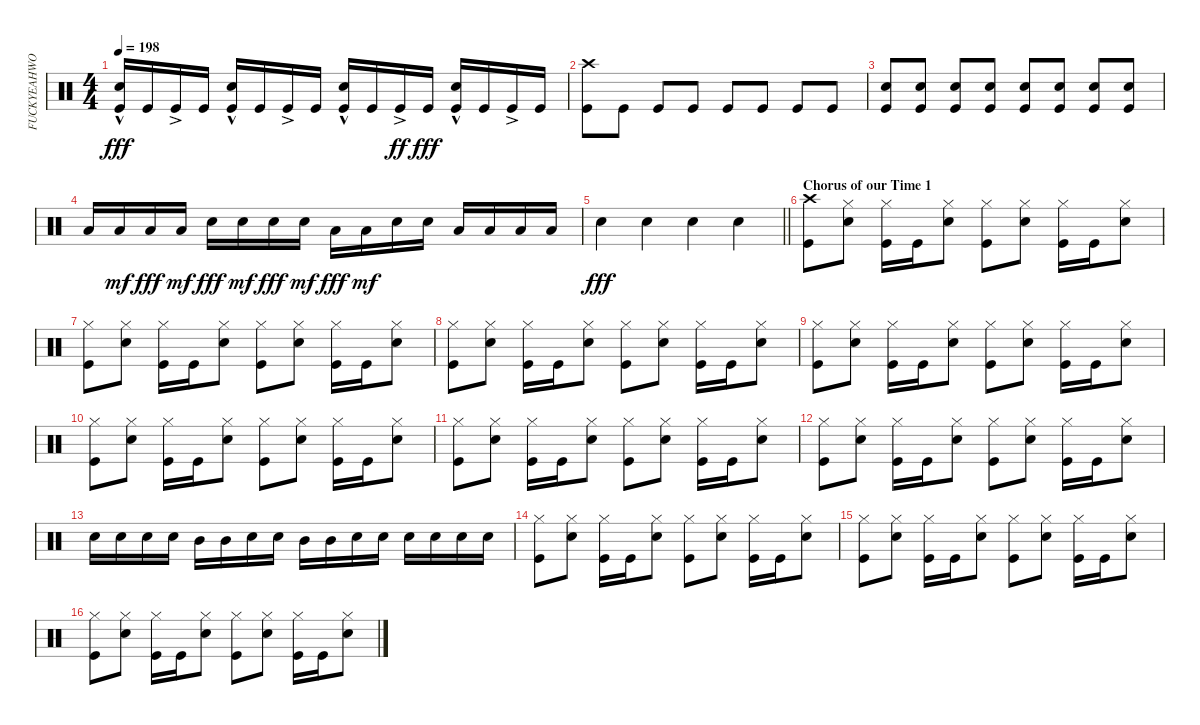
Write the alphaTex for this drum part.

\track ("FUCKYEAHWOOTDAVEMACKINTOSH!(Percussion)" "FUCKYEAHWO") {instrument percussion}
\staff {score}
\articulation defaults
\ts (4 4)
\tempo 198
\clef neutral
\ks c
("Snare (hit) 2" "Kick (hit)"{hac}).16{dy fff} "Kick (hit)".16 "Kick (hit)"{ac}.16 "Kick (hit)".16 ("Kick (hit)"{hac} "Snare (hit) 2").16 "Kick (hit)".16 "Kick (hit)"{ac}.16 "Kick (hit)".16 ("Snare (hit) 2" "Kick (hit)"{hac}).16 "Kick (hit)".16 "Kick (hit)"{ac}.16{dy ff} "Kick (hit)".16{dy fff} ("Snare (hit) 2" "Kick (hit)"{hac}).16 "Kick (hit)".16 "Kick (hit)"{ac}.16 "Kick (hit)".16 |
("Crash high (hit)" "Kick (hit)").8 "Kick (hit)".8 "Kick (hit)".8 "Kick (hit)".8 "Kick (hit)".8 "Kick (hit)".8 "Kick (hit)".8 "Kick (hit)".8 |
("Snare (hit) 2" "Kick (hit)").8 ("Snare (hit) 2" "Kick (hit)").8 ("Snare (hit) 2" "Kick (hit)").8 ("Snare (hit) 2" "Kick (hit)").8 ("Snare (hit) 2" "Kick (hit)").8 ("Snare (hit) 2" "Kick (hit)").8 ("Snare (hit) 2" "Kick (hit)").8 ("Snare (hit) 2" "Kick (hit)").8 |
"Low Tom (hit)".16 "Low Tom (hit)".16{dy mf} "Low Tom (hit)".16{dy fff} "Low Tom (hit)".16{dy mf} "Snare (hit) 2".16{dy fff} "Snare (hit) 2".16{dy mf} "Snare (hit) 2".16{dy fff} "Snare (hit) 2".16{dy mf} "Low Tom (hit)".16{dy fff} "Low Tom (hit)".16{dy mf} "Snare (hit) 2".16 "Snare (hit) 2".16 "Low Tom (hit)".16 "Low Tom (hit)".16 "Low Tom (hit)".16 "Low Tom (hit)".16 |
\barLineRight lightlight "Snare (hit) 2".4{dy fff} "Snare (hit) 2".4 "Snare (hit) 2".4 "Snare (hit) 2".4
|
\section ("" "Chorus of our Time 1")
("Kick (hit)" "Crash high (hit)").8 ("Snare (hit) 2" "Hi-Hat (closed)").8 ("Kick (hit)" "Hi-Hat (closed)").16 "Kick (hit)".16 ("Hi-Hat (closed)" "Snare (hit) 2").8 ("Kick (hit)" "Hi-Hat (closed)").8 ("Snare (hit) 2" "Hi-Hat (closed)").8 ("Kick (hit)" "Hi-Hat (closed)").16 "Kick (hit)".16 ("Snare (hit) 2" "Hi-Hat (closed)").8 |
("Kick (hit)" "Hi-Hat (closed)").8 ("Snare (hit) 2" "Hi-Hat (closed)").8 ("Kick (hit)" "Hi-Hat (closed)").16 "Kick (hit)".16 ("Hi-Hat (closed)" "Snare (hit) 2").8 ("Kick (hit)" "Hi-Hat (closed)").8 ("Snare (hit) 2" "Hi-Hat (closed)").8 ("Kick (hit)" "Hi-Hat (closed)").16 "Kick (hit)".16 ("Snare (hit) 2" "Hi-Hat (closed)").8 |
("Kick (hit)" "Hi-Hat (closed)").8 ("Snare (hit) 2" "Hi-Hat (closed)").8 ("Kick (hit)" "Hi-Hat (closed)").16 "Kick (hit)".16 ("Hi-Hat (closed)" "Snare (hit) 2").8 ("Kick (hit)" "Hi-Hat (closed)").8 ("Snare (hit) 2" "Hi-Hat (closed)").8 ("Kick (hit)" "Hi-Hat (closed)").16 "Kick (hit)".16 ("Snare (hit) 2" "Hi-Hat (closed)").8 |
("Kick (hit)" "Hi-Hat (closed)").8 ("Snare (hit) 2" "Hi-Hat (closed)").8 ("Kick (hit)" "Hi-Hat (closed)").16 "Kick (hit)".16 ("Hi-Hat (closed)" "Snare (hit) 2").8 ("Kick (hit)" "Hi-Hat (closed)").8 ("Snare (hit) 2" "Hi-Hat (closed)").8 ("Kick (hit)" "Hi-Hat (closed)").16 "Kick (hit)".16 ("Snare (hit) 2" "Hi-Hat (closed)").8 |
("Kick (hit)" "Hi-Hat (closed)").8 ("Snare (hit) 2" "Hi-Hat (closed)").8 ("Kick (hit)" "Hi-Hat (closed)").16 "Kick (hit)".16 ("Hi-Hat (closed)" "Snare (hit) 2").8 ("Kick (hit)" "Hi-Hat (closed)").8 ("Snare (hit) 2" "Hi-Hat (closed)").8 ("Kick (hit)" "Hi-Hat (closed)").16 "Kick (hit)".16 ("Snare (hit) 2" "Hi-Hat (closed)").8 |
("Kick (hit)" "Hi-Hat (closed)").8 ("Snare (hit) 2" "Hi-Hat (closed)").8 ("Kick (hit)" "Hi-Hat (closed)").16 "Kick (hit)".16 ("Hi-Hat (closed)" "Snare (hit) 2").8 ("Kick (hit)" "Hi-Hat (closed)").8 ("Snare (hit) 2" "Hi-Hat (closed)").8 ("Kick (hit)" "Hi-Hat (closed)").16 "Kick (hit)".16 ("Snare (hit) 2" "Hi-Hat (closed)").8 |
("Kick (hit)" "Hi-Hat (closed)").8 ("Snare (hit) 2" "Hi-Hat (closed)").8 ("Kick (hit)" "Hi-Hat (closed)").16 "Kick (hit)".16 ("Hi-Hat (closed)" "Snare (hit) 2").8 ("Kick (hit)" "Hi-Hat (closed)").8 ("Snare (hit) 2" "Hi-Hat (closed)").8 ("Kick (hit)" "Hi-Hat (closed)").16 "Kick (hit)".16 ("Snare (hit) 2" "Hi-Hat (closed)").8 |
"Snare (hit) 2".16 "Snare (hit) 2".16 "Snare (hit) 2".16 "Snare (hit) 2".16 "Mid Tom (hit)".16 "Mid Tom (hit)".16 "Snare (hit) 2".16 "Snare (hit) 2".16 "Mid Tom (hit)".16 "Mid Tom (hit)".16 "Snare (hit) 2".16 "Snare (hit) 2".16 "Snare (hit) 2".16 "Snare (hit) 2".16 "Snare (hit) 2".16 "Snare (hit) 2".16 |
("Kick (hit)" "Hi-Hat (closed)").8 ("Snare (hit) 2" "Hi-Hat (closed)").8 ("Kick (hit)" "Hi-Hat (closed)").16 "Kick (hit)".16 ("Hi-Hat (closed)" "Snare (hit) 2").8 ("Kick (hit)" "Hi-Hat (closed)").8 ("Snare (hit) 2" "Hi-Hat (closed)").8 ("Kick (hit)" "Hi-Hat (closed)").16 "Kick (hit)".16 ("Snare (hit) 2" "Hi-Hat (closed)").8 |
("Kick (hit)" "Hi-Hat (closed)").8 ("Snare (hit) 2" "Hi-Hat (closed)").8 ("Kick (hit)" "Hi-Hat (closed)").16 "Kick (hit)".16 ("Hi-Hat (closed)" "Snare (hit) 2").8 ("Kick (hit)" "Hi-Hat (closed)").8 ("Snare (hit) 2" "Hi-Hat (closed)").8 ("Kick (hit)" "Hi-Hat (closed)").16 "Kick (hit)".16 ("Snare (hit) 2" "Hi-Hat (closed)").8 |
("Kick (hit)" "Hi-Hat (closed)").8 ("Snare (hit) 2" "Hi-Hat (closed)").8 ("Kick (hit)" "Hi-Hat (closed)").16 "Kick (hit)".16 ("Hi-Hat (closed)" "Snare (hit) 2").8 ("Kick (hit)" "Hi-Hat (closed)").8 ("Snare (hit) 2" "Hi-Hat (closed)").8 ("Kick (hit)" "Hi-Hat (closed)").16 "Kick (hit)".16 ("Snare (hit) 2" "Hi-Hat (closed)").8
